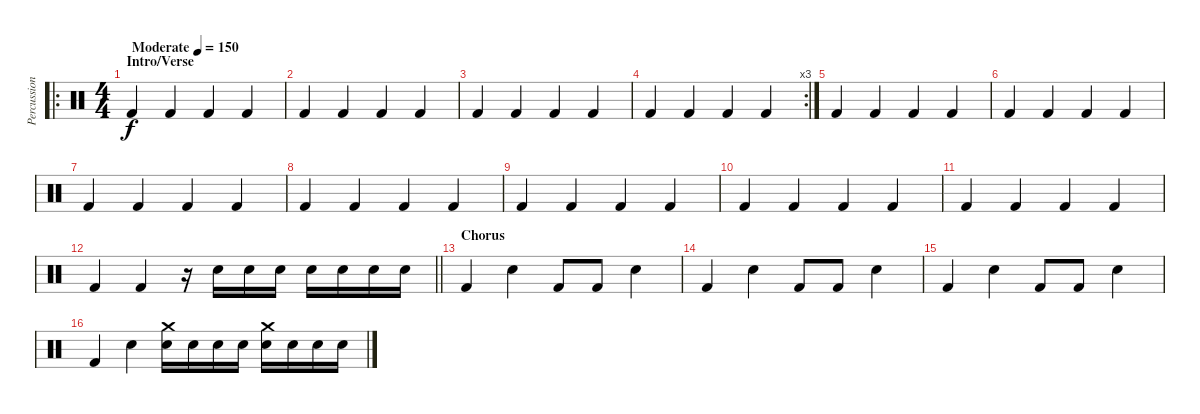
\track ("Percussion" "Percussion") {instrument percussion bank 255}
\staff {score}
\articulation defaults
\ro
\ts (4 4)
\section ("" "Intro/Verse")
\tempo (150 "Moderate")
\clef neutral
\ks c "Kick (hit) 2".4{dy f} "Kick (hit) 2".4 "Kick (hit) 2".4 "Kick (hit) 2".4
|
"Kick (hit) 2".4 "Kick (hit) 2".4 "Kick (hit) 2".4 "Kick (hit) 2".4 |
"Kick (hit) 2".4 "Kick (hit) 2".4 "Kick (hit) 2".4 "Kick (hit) 2".4 |
\rc 3 "Kick (hit) 2".4 "Kick (hit) 2".4 "Kick (hit) 2".4 "Kick (hit) 2".4
|
"Kick (hit) 2".4 "Kick (hit) 2".4 "Kick (hit) 2".4 "Kick (hit) 2".4 |
"Kick (hit) 2".4 "Kick (hit) 2".4 "Kick (hit) 2".4 "Kick (hit) 2".4 |
"Kick (hit) 2".4 "Kick (hit) 2".4 "Kick (hit) 2".4 "Kick (hit) 2".4 |
"Kick (hit) 2".4 "Kick (hit) 2".4 "Kick (hit) 2".4 "Kick (hit) 2".4 |
"Kick (hit) 2".4 "Kick (hit) 2".4 "Kick (hit) 2".4 "Kick (hit) 2".4 |
"Kick (hit) 2".4 "Kick (hit) 2".4 "Kick (hit) 2".4 "Kick (hit) 2".4 |
"Kick (hit) 2".4 "Kick (hit) 2".4 "Kick (hit) 2".4 "Kick (hit) 2".4 |
\barLineRight lightlight "Kick (hit) 2".4 "Kick (hit) 2".4
r.16 "Electric Snare (hit)".16 "Electric Snare (hit)".16 "Electric Snare (hit)".16 "Electric Snare (hit)".16 "Electric Snare (hit)".16 "Electric Snare (hit)".16 "Electric Snare (hit)".16 |
\section ("" "Chorus")
"Kick (hit) 2".4 "Electric Snare (hit)".4 "Kick (hit) 2".8 "Kick (hit) 2".8 "Electric Snare (hit)".4 |
"Kick (hit) 2".4 "Electric Snare (hit)".4 "Kick (hit) 2".8 "Kick (hit) 2".8 "Electric Snare (hit)".4 |
"Kick (hit) 2".4 "Electric Snare (hit)".4 "Kick (hit) 2".8 "Kick (hit) 2".8 "Electric Snare (hit)".4 |
"Kick (hit) 2".4 "Electric Snare (hit)".4 ("Crash medium (hit)" "Electric Snare (hit)").16 "Electric Snare (hit)".16 "Electric Snare (hit)".16 "Electric Snare (hit)".16 ("Crash medium (hit)" "Electric Snare (hit)").16 "Electric Snare (hit)".16 "Electric Snare (hit)".16 "Electric Snare (hit)".16
